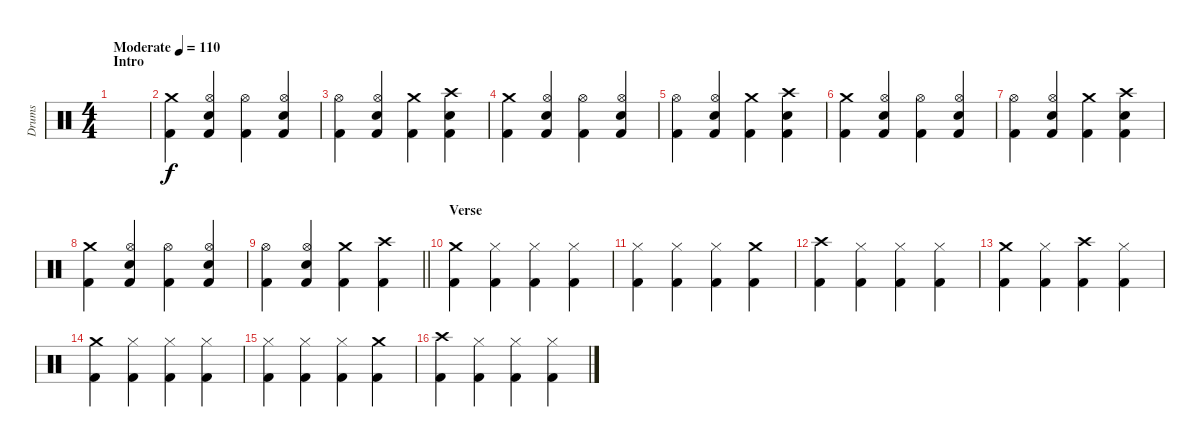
\track ("Drums" "Drums") {instrument percussion}
\staff {score}
\articulation defaults
\ts (4 4)
\section ("" "Intro")
\tempo (110 "Moderate")
\clef neutral
\ks c
|
("Crash medium (hit)" "Kick (hit) 2").4 ("Hi-Hat (open)" "Electric Snare (hit)" "Kick (hit) 2").4 ("Hi-Hat (open)" "Kick (hit) 2").4 ("Hi-Hat (open)" "Electric Snare (hit)" "Kick (hit) 2").4 |
("Hi-Hat (open)" "Kick (hit) 2").4 ("Hi-Hat (open)" "Electric Snare (hit)" "Kick (hit) 2").4 ("Crash medium (hit)" "Kick (hit) 2").4 ("Crash high (hit)" "Electric Snare (hit)" "Kick (hit) 2").4 |
("Crash medium (hit)" "Kick (hit) 2").4 ("Hi-Hat (open)" "Electric Snare (hit)" "Kick (hit) 2").4 ("Hi-Hat (open)" "Kick (hit) 2").4 ("Hi-Hat (open)" "Electric Snare (hit)" "Kick (hit) 2").4 |
("Hi-Hat (open)" "Kick (hit) 2").4 ("Hi-Hat (open)" "Electric Snare (hit)" "Kick (hit) 2").4 ("Crash medium (hit)" "Kick (hit) 2").4 ("Crash high (hit)" "Electric Snare (hit)" "Kick (hit) 2").4 |
("Crash medium (hit)" "Kick (hit) 2").4 ("Hi-Hat (open)" "Electric Snare (hit)" "Kick (hit) 2").4 ("Hi-Hat (open)" "Kick (hit) 2").4 ("Hi-Hat (open)" "Electric Snare (hit)" "Kick (hit) 2").4 |
("Hi-Hat (open)" "Kick (hit) 2").4 ("Hi-Hat (open)" "Electric Snare (hit)" "Kick (hit) 2").4 ("Crash medium (hit)" "Kick (hit) 2").4 ("Crash high (hit)" "Electric Snare (hit)" "Kick (hit) 2").4 |
("Crash medium (hit)" "Kick (hit) 2").4 ("Hi-Hat (open)" "Electric Snare (hit)" "Kick (hit) 2").4 ("Hi-Hat (open)" "Kick (hit) 2").4 ("Hi-Hat (open)" "Electric Snare (hit)" "Kick (hit) 2").4 |
\barLineRight lightlight
("Hi-Hat (open)" "Kick (hit) 2").4 ("Hi-Hat (open)" "Electric Snare (hit)" "Kick (hit) 2").4 ("Crash medium (hit)" "Kick (hit) 2").4 ("Crash high (hit)" "Kick (hit) 2").4 |
\section ("" "Verse")
("Crash medium (hit)" "Kick (hit) 2").4 ("Hi-Hat (closed)" "Kick (hit) 2").4 ("Hi-Hat (closed)" "Kick (hit) 2").4 ("Hi-Hat (closed)" "Kick (hit) 2").4 |
("Hi-Hat (closed)" "Kick (hit) 2").4 ("Hi-Hat (closed)" "Kick (hit) 2").4 ("Hi-Hat (closed)" "Kick (hit) 2").4 ("Crash medium (hit)" "Kick (hit) 2").4 |
("Crash high (hit)" "Kick (hit) 2").4 ("Hi-Hat (closed)" "Kick (hit) 2").4 ("Hi-Hat (closed)" "Kick (hit) 2").4 ("Hi-Hat (closed)" "Kick (hit) 2").4 |
("Crash medium (hit)" "Kick (hit) 2").4 ("Hi-Hat (closed)" "Kick (hit) 2").4 ("Crash high (hit)" "Kick (hit) 2").4 ("Hi-Hat (closed)" "Kick (hit) 2").4 |
("Crash medium (hit)" "Kick (hit) 2").4 ("Hi-Hat (closed)" "Kick (hit) 2").4 ("Hi-Hat (closed)" "Kick (hit) 2").4 ("Hi-Hat (closed)" "Kick (hit) 2").4 |
("Hi-Hat (closed)" "Kick (hit) 2").4 ("Hi-Hat (closed)" "Kick (hit) 2").4 ("Hi-Hat (closed)" "Kick (hit) 2").4 ("Crash medium (hit)" "Kick (hit) 2").4 |
("Crash high (hit)" "Kick (hit) 2").4 ("Hi-Hat (closed)" "Kick (hit) 2").4 ("Hi-Hat (closed)" "Kick (hit) 2").4 ("Hi-Hat (closed)" "Kick (hit) 2").4
